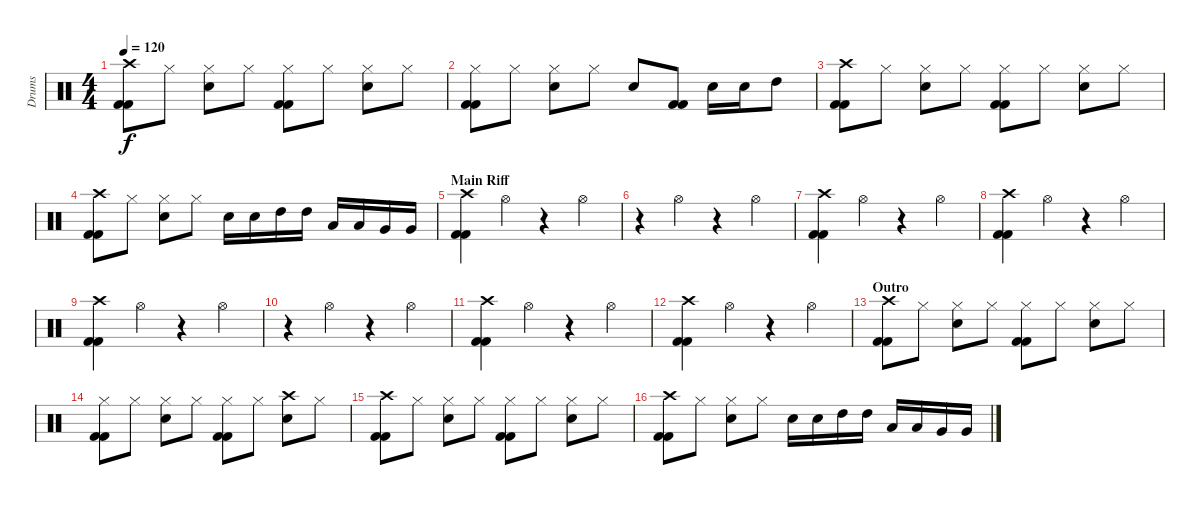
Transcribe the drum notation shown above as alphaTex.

\track ("Drums" "Drums") {instrument percussion}
\staff {score}
\articulation defaults
\ts (4 4)
\tempo 120
\clef neutral
\ks c
("Crash high (hit)" "Kick (hit) 2" "Kick (hit) 2").8{dy f} "Hi-Hat (closed)".8 ("Electric Snare (hit)" "Hi-Hat (closed)").8 "Hi-Hat (closed)".8 ("Kick (hit) 2" "Kick (hit) 2" "Hi-Hat (closed)").8 "Hi-Hat (closed)".8 ("Hi-Hat (closed)" "Electric Snare (hit)").8 "Hi-Hat (closed)".8 |
("Hi-Hat (closed)" "Kick (hit) 2" "Kick (hit) 2").8 "Hi-Hat (closed)".8 ("Electric Snare (hit)" "Hi-Hat (closed)").8 "Hi-Hat (closed)".8 "Electric Snare (hit)".8 ("Kick (hit) 2" "Kick (hit) 2").8 "Electric Snare (hit)".16 "Electric Snare (hit)".16 "High Tom (hit)".8 |
("Crash high (hit)" "Kick (hit) 2" "Kick (hit) 2").8 "Hi-Hat (closed)".8 ("Electric Snare (hit)" "Hi-Hat (closed)").8 "Hi-Hat (closed)".8 ("Kick (hit) 2" "Kick (hit) 2" "Hi-Hat (closed)").8 "Hi-Hat (closed)".8 ("Hi-Hat (closed)" "Electric Snare (hit)").8 "Hi-Hat (closed)".8 |
("Crash high (hit)" "Kick (hit) 2" "Kick (hit) 2").8 "Hi-Hat (closed)".8 ("Electric Snare (hit)" "Hi-Hat (closed)").8 "Hi-Hat (closed)".8 "Electric Snare (hit)".16 "Electric Snare (hit)".16 "High Tom (hit)".16 "High Tom (hit)".16 "Low Tom (hit)".16 "Low Tom (hit)".16 "Very Low Tom (hit)".16 "Very Low Tom (hit)".16 |
\section ("" "Main Riff")
("Crash high (hit)" "Kick (hit) 2" "Kick (hit) 2").4 "Hi-Hat (open)".4 r.4 "Hi-Hat (open)".4 |
r.4 "Hi-Hat (open)".4 r.4 "Hi-Hat (open)".4 |
("Crash high (hit)" "Kick (hit) 2" "Kick (hit) 2").4 "Hi-Hat (open)".4 r.4 "Hi-Hat (open)".4 |
("Crash high (hit)" "Kick (hit) 2" "Kick (hit) 2").4 "Hi-Hat (open)".4 r.4 "Hi-Hat (open)".4 |
("Crash high (hit)" "Kick (hit) 2" "Kick (hit) 2").4 "Hi-Hat (open)".4 r.4 "Hi-Hat (open)".4 |
r.4 "Hi-Hat (open)".4 r.4 "Hi-Hat (open)".4 |
("Crash high (hit)" "Kick (hit) 2" "Kick (hit) 2").4 "Hi-Hat (open)".4 r.4 "Hi-Hat (open)".4 |
("Crash high (hit)" "Kick (hit) 2" "Kick (hit) 2").4 "Hi-Hat (open)".4 r.4 "Hi-Hat (open)".4 |
\section ("" "Outro")
("Crash high (hit)" "Kick (hit) 2" "Kick (hit) 2").8 "Hi-Hat (closed)".8 ("Electric Snare (hit)" "Hi-Hat (closed)").8 "Hi-Hat (closed)".8 ("Kick (hit) 2" "Kick (hit) 2" "Hi-Hat (closed)").8 "Hi-Hat (closed)".8 ("Hi-Hat (closed)" "Electric Snare (hit)").8 "Hi-Hat (closed)".8 |
("Hi-Hat (closed)" "Kick (hit) 2" "Kick (hit) 2").8 "Hi-Hat (closed)".8 ("Electric Snare (hit)" "Hi-Hat (closed)").8 "Hi-Hat (closed)".8 ("Kick (hit) 2" "Kick (hit) 2" "Hi-Hat (closed)").8 "Hi-Hat (closed)".8 ("Crash high (hit)" "Electric Snare (hit)").8 "Hi-Hat (closed)".8 |
("Crash high (hit)" "Kick (hit) 2" "Kick (hit) 2").8 "Hi-Hat (closed)".8 ("Electric Snare (hit)" "Hi-Hat (closed)").8 "Hi-Hat (closed)".8 ("Kick (hit) 2" "Kick (hit) 2" "Hi-Hat (closed)").8 "Hi-Hat (closed)".8 ("Hi-Hat (closed)" "Electric Snare (hit)").8 "Hi-Hat (closed)".8 |
("Crash high (hit)" "Kick (hit) 2" "Kick (hit) 2").8 "Hi-Hat (closed)".8 ("Electric Snare (hit)" "Hi-Hat (closed)").8 "Hi-Hat (closed)".8 "Electric Snare (hit)".16 "Electric Snare (hit)".16 "High Tom (hit)".16 "High Tom (hit)".16 "Low Tom (hit)".16 "Low Tom (hit)".16 "Very Low Tom (hit)".16 "Very Low Tom (hit)".16
